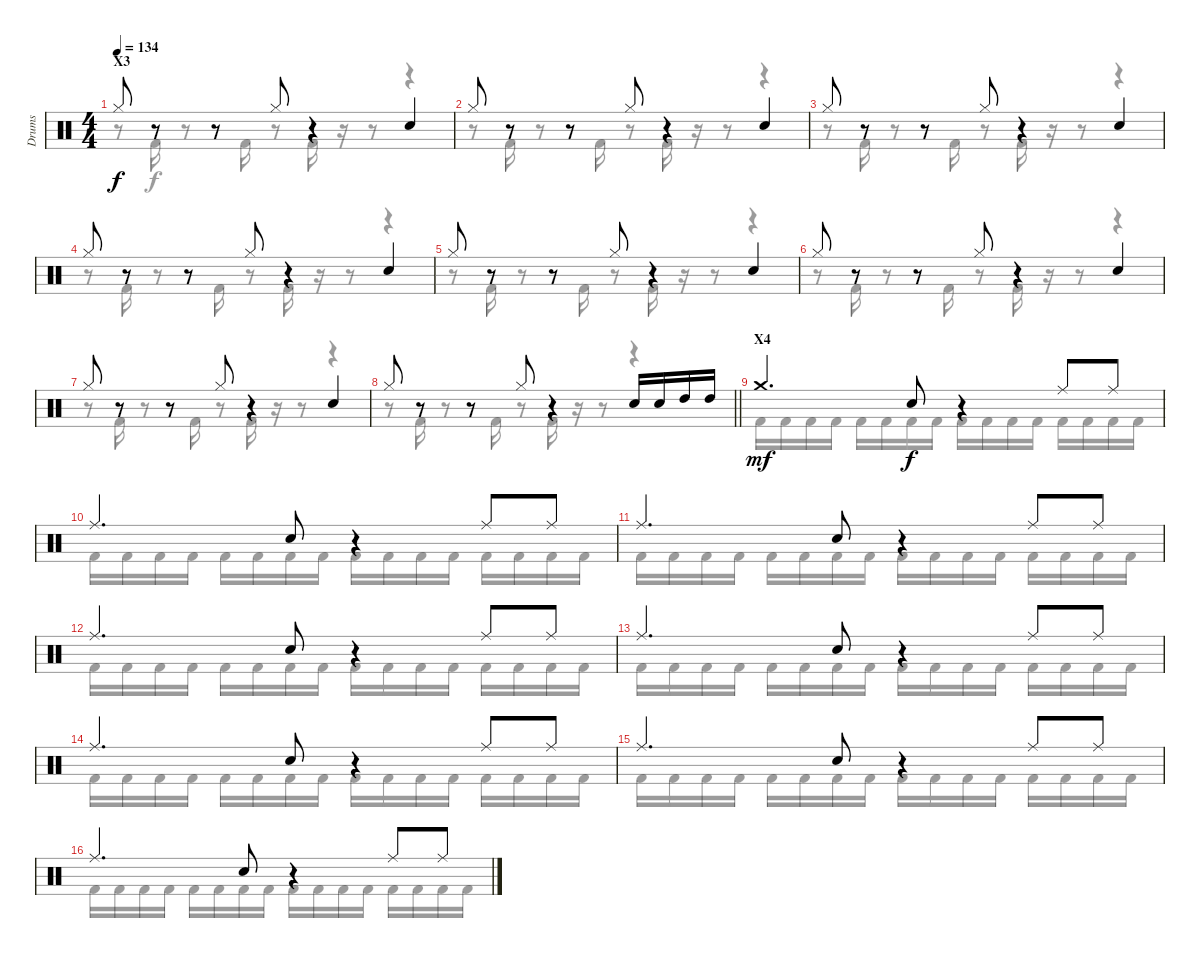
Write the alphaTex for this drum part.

\track ("Drums" "Drums") {instrument percussion}
\staff {score}
\articulation defaults
\voice
\ts (4 4)
\section ("" "X3")
\tempo 134
\clef neutral
\ks c "Hi-Hat (closed)".8{dy f}
r.8 r.8 "Hi-Hat (closed)".8 r.4 "Electric Snare (hit)".4 |
"Hi-Hat (closed)".8 r.8 r.8 "Hi-Hat (closed)".8 r.4 "Electric Snare (hit)".4 |
"Hi-Hat (closed)".8 r.8 r.8 "Hi-Hat (closed)".8 r.4 "Electric Snare (hit)".4 |
"Hi-Hat (closed)".8 r.8 r.8 "Hi-Hat (closed)".8 r.4 "Electric Snare (hit)".4 |
"Hi-Hat (closed)".8 r.8 r.8 "Hi-Hat (closed)".8 r.4 "Electric Snare (hit)".4 |
"Hi-Hat (closed)".8 r.8 r.8 "Hi-Hat (closed)".8 r.4 "Electric Snare (hit)".4 |
"Hi-Hat (closed)".8 r.8 r.8 "Hi-Hat (closed)".8 r.4 "Electric Snare (hit)".4 |
\barLineRight lightlight "Hi-Hat (closed)".8
r.8 r.8 "Hi-Hat (closed)".8 r.4 "Electric Snare (hit)".16 "Electric Snare (hit)".16 "High Tom (hit)".16 "High Tom (hit)".16 |
\section ("" "X4")
"Crash medium (hit)".4{d dy mf} "Electric Snare (hit)".8{dy f} r.4 "Ride (middle)".8 "Ride (middle)".8 |
"Ride (middle)".4{d} "Electric Snare (hit)".8 r.4 "Ride (middle)".8 "Ride (middle)".8 |
"Ride (middle)".4{d} "Electric Snare (hit)".8 r.4 "Ride (middle)".8 "Ride (middle)".8 |
"Ride (middle)".4{d} "Electric Snare (hit)".8 r.4 "Ride (middle)".8 "Ride (middle)".8 |
"Ride (middle)".4{d} "Electric Snare (hit)".8 r.4 "Ride (middle)".8 "Ride (middle)".8 |
"Ride (middle)".4{d} "Electric Snare (hit)".8 r.4 "Ride (middle)".8 "Ride (middle)".8 |
"Ride (middle)".4{d} "Electric Snare (hit)".8 r.4 "Ride (middle)".8 "Ride (middle)".8 |
"Ride (middle)".4{d} "Electric Snare (hit)".8 r.4 "Ride (middle)".8 "Ride (middle)".8
\voice
\clef neutral
\ottava regular
\simile none
\ks c
r.8{dy f} "Kick (hit) 2".16 r.8 "Kick (hit) 2".16 r.8 "Kick (hit) 2".16 r.16 r.8 r.4 |
r.8 "Kick (hit) 2".16 r.8 "Kick (hit) 2".16 r.8 "Kick (hit) 2".16 r.16 r.8 r.4 |
r.8 "Kick (hit) 2".16 r.8 "Kick (hit) 2".16 r.8 "Kick (hit) 2".16 r.16 r.8 r.4 |
r.8 "Kick (hit) 2".16 r.8 "Kick (hit) 2".16 r.8 "Kick (hit) 2".16 r.16 r.8 r.4 |
r.8 "Kick (hit) 2".16 r.8 "Kick (hit) 2".16 r.8 "Kick (hit) 2".16 r.16 r.8 r.4 |
r.8 "Kick (hit) 2".16 r.8 "Kick (hit) 2".16 r.8 "Kick (hit) 2".16 r.16 r.8 r.4 |
r.8 "Kick (hit) 2".16 r.8 "Kick (hit) 2".16 r.8 "Kick (hit) 2".16 r.16 r.8 r.4 |
\barLineRight lightlight
r.8 "Kick (hit) 2".16 r.8 "Kick (hit) 2".16 r.8 "Kick (hit) 2".16 r.16 r.8 r.4 |
"Kick (hit) 2".16 "Kick (hit) 2".16 "Kick (hit) 2".16 "Kick (hit) 2".16 "Kick (hit) 2".16 "Kick (hit) 2".16 "Kick (hit) 2".16 "Kick (hit) 2".16 "Kick (hit) 2".16 "Kick (hit) 2".16 "Kick (hit) 2".16 "Kick (hit) 2".16 "Kick (hit) 2".16 "Kick (hit) 2".16 "Kick (hit) 2".16 "Kick (hit) 2".16 |
"Kick (hit) 2".16 "Kick (hit) 2".16 "Kick (hit) 2".16 "Kick (hit) 2".16 "Kick (hit) 2".16 "Kick (hit) 2".16 "Kick (hit) 2".16 "Kick (hit) 2".16 "Kick (hit) 2".16 "Kick (hit) 2".16 "Kick (hit) 2".16 "Kick (hit) 2".16 "Kick (hit) 2".16 "Kick (hit) 2".16 "Kick (hit) 2".16 "Kick (hit) 2".16 |
"Kick (hit) 2".16 "Kick (hit) 2".16 "Kick (hit) 2".16 "Kick (hit) 2".16 "Kick (hit) 2".16 "Kick (hit) 2".16 "Kick (hit) 2".16 "Kick (hit) 2".16 "Kick (hit) 2".16 "Kick (hit) 2".16 "Kick (hit) 2".16 "Kick (hit) 2".16 "Kick (hit) 2".16 "Kick (hit) 2".16 "Kick (hit) 2".16 "Kick (hit) 2".16 |
"Kick (hit) 2".16 "Kick (hit) 2".16 "Kick (hit) 2".16 "Kick (hit) 2".16 "Kick (hit) 2".16 "Kick (hit) 2".16 "Kick (hit) 2".16 "Kick (hit) 2".16 "Kick (hit) 2".16 "Kick (hit) 2".16 "Kick (hit) 2".16 "Kick (hit) 2".16 "Kick (hit) 2".16 "Kick (hit) 2".16 "Kick (hit) 2".16 "Kick (hit) 2".16 |
"Kick (hit) 2".16 "Kick (hit) 2".16 "Kick (hit) 2".16 "Kick (hit) 2".16 "Kick (hit) 2".16 "Kick (hit) 2".16 "Kick (hit) 2".16 "Kick (hit) 2".16 "Kick (hit) 2".16 "Kick (hit) 2".16 "Kick (hit) 2".16 "Kick (hit) 2".16 "Kick (hit) 2".16 "Kick (hit) 2".16 "Kick (hit) 2".16 "Kick (hit) 2".16 |
"Kick (hit) 2".16 "Kick (hit) 2".16 "Kick (hit) 2".16 "Kick (hit) 2".16 "Kick (hit) 2".16 "Kick (hit) 2".16 "Kick (hit) 2".16 "Kick (hit) 2".16 "Kick (hit) 2".16 "Kick (hit) 2".16 "Kick (hit) 2".16 "Kick (hit) 2".16 "Kick (hit) 2".16 "Kick (hit) 2".16 "Kick (hit) 2".16 "Kick (hit) 2".16 |
"Kick (hit) 2".16 "Kick (hit) 2".16 "Kick (hit) 2".16 "Kick (hit) 2".16 "Kick (hit) 2".16 "Kick (hit) 2".16 "Kick (hit) 2".16 "Kick (hit) 2".16 "Kick (hit) 2".16 "Kick (hit) 2".16 "Kick (hit) 2".16 "Kick (hit) 2".16 "Kick (hit) 2".16 "Kick (hit) 2".16 "Kick (hit) 2".16 "Kick (hit) 2".16 |
"Kick (hit) 2".16 "Kick (hit) 2".16 "Kick (hit) 2".16 "Kick (hit) 2".16 "Kick (hit) 2".16 "Kick (hit) 2".16 "Kick (hit) 2".16 "Kick (hit) 2".16 "Kick (hit) 2".16 "Kick (hit) 2".16 "Kick (hit) 2".16 "Kick (hit) 2".16 "Kick (hit) 2".16 "Kick (hit) 2".16 "Kick (hit) 2".16 "Kick (hit) 2".16
